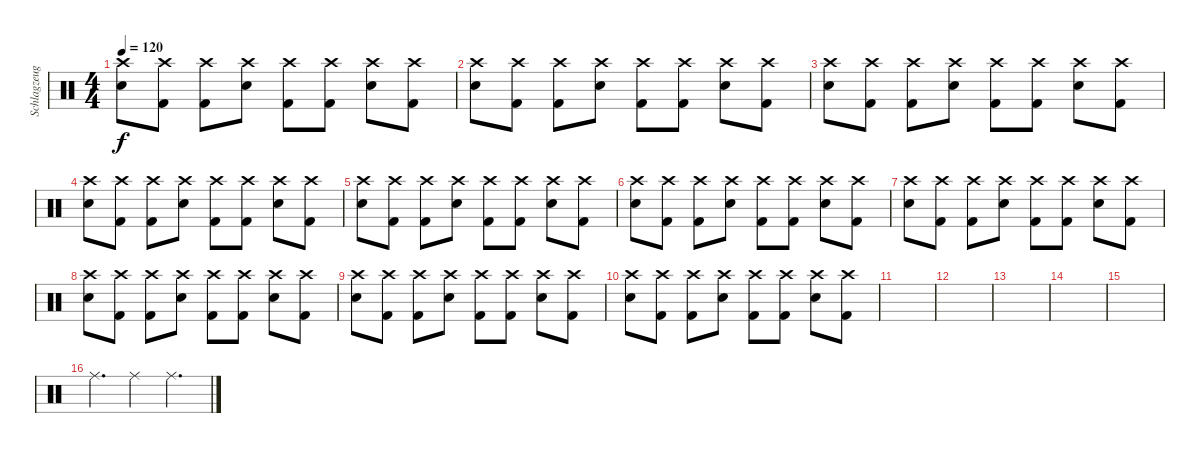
\track ("Schlagzeug" "Schlagzeug") {instrument percussion}
\staff {score}
\articulation defaults
\ts (4 4)
\tempo 120
\clef neutral
\ks c
("Snare (hit) 2" "Crash high (hit)").8{dy f} ("Kick (hit) 2" "Crash high (hit)").8 ("Crash high (hit)" "Kick (hit) 2").8 ("Snare (hit) 2" "Crash high (hit)").8 ("Kick (hit) 2" "Crash high (hit)").8 ("Kick (hit) 2" "Crash high (hit)").8 ("Snare (hit) 2" "Crash high (hit)").8 ("Crash high (hit)" "Kick (hit) 2").8 |
("Snare (hit) 2" "Crash high (hit)").8 ("Kick (hit) 2" "Crash high (hit)").8 ("Crash high (hit)" "Kick (hit) 2").8 ("Snare (hit) 2" "Crash high (hit)").8 ("Kick (hit) 2" "Crash high (hit)").8 ("Kick (hit) 2" "Crash high (hit)").8 ("Snare (hit) 2" "Crash high (hit)").8 ("Crash high (hit)" "Kick (hit) 2").8 |
("Snare (hit) 2" "Crash high (hit)").8 ("Kick (hit) 2" "Crash high (hit)").8 ("Crash high (hit)" "Kick (hit) 2").8 ("Snare (hit) 2" "Crash high (hit)").8 ("Kick (hit) 2" "Crash high (hit)").8 ("Kick (hit) 2" "Crash high (hit)").8 ("Snare (hit) 2" "Crash high (hit)").8 ("Crash high (hit)" "Kick (hit) 2").8 |
("Snare (hit) 2" "Crash high (hit)").8 ("Kick (hit) 2" "Crash high (hit)").8 ("Crash high (hit)" "Kick (hit) 2").8 ("Snare (hit) 2" "Crash high (hit)").8 ("Kick (hit) 2" "Crash high (hit)").8 ("Kick (hit) 2" "Crash high (hit)").8 ("Snare (hit) 2" "Crash high (hit)").8 ("Crash high (hit)" "Kick (hit) 2").8 |
("Snare (hit) 2" "Crash high (hit)").8 ("Kick (hit) 2" "Crash high (hit)").8 ("Crash high (hit)" "Kick (hit) 2").8 ("Snare (hit) 2" "Crash high (hit)").8 ("Kick (hit) 2" "Crash high (hit)").8 ("Kick (hit) 2" "Crash high (hit)").8 ("Snare (hit) 2" "Crash high (hit)").8 ("Crash high (hit)" "Kick (hit) 2").8 |
("Snare (hit) 2" "Crash high (hit)").8 ("Kick (hit) 2" "Crash high (hit)").8 ("Crash high (hit)" "Kick (hit) 2").8 ("Snare (hit) 2" "Crash high (hit)").8 ("Kick (hit) 2" "Crash high (hit)").8 ("Kick (hit) 2" "Crash high (hit)").8 ("Snare (hit) 2" "Crash high (hit)").8 ("Crash high (hit)" "Kick (hit) 2").8 |
("Snare (hit) 2" "Crash high (hit)").8 ("Kick (hit) 2" "Crash high (hit)").8 ("Crash high (hit)" "Kick (hit) 2").8 ("Snare (hit) 2" "Crash high (hit)").8 ("Kick (hit) 2" "Crash high (hit)").8 ("Kick (hit) 2" "Crash high (hit)").8 ("Snare (hit) 2" "Crash high (hit)").8 ("Crash high (hit)" "Kick (hit) 2").8 |
("Snare (hit) 2" "Crash high (hit)").8 ("Kick (hit) 2" "Crash high (hit)").8 ("Crash high (hit)" "Kick (hit) 2").8 ("Snare (hit) 2" "Crash high (hit)").8 ("Kick (hit) 2" "Crash high (hit)").8 ("Kick (hit) 2" "Crash high (hit)").8 ("Snare (hit) 2" "Crash high (hit)").8 ("Crash high (hit)" "Kick (hit) 2").8 |
("Snare (hit) 2" "Crash high (hit)").8 ("Kick (hit) 2" "Crash high (hit)").8 ("Crash high (hit)" "Kick (hit) 2").8 ("Snare (hit) 2" "Crash high (hit)").8 ("Kick (hit) 2" "Crash high (hit)").8 ("Kick (hit) 2" "Crash high (hit)").8 ("Snare (hit) 2" "Crash high (hit)").8 ("Crash high (hit)" "Kick (hit) 2").8 |
("Snare (hit) 2" "Crash high (hit)").8 ("Kick (hit) 2" "Crash high (hit)").8 ("Crash high (hit)" "Kick (hit) 2").8 ("Snare (hit) 2" "Crash high (hit)").8 ("Kick (hit) 2" "Crash high (hit)").8 ("Kick (hit) 2" "Crash high (hit)").8 ("Snare (hit) 2" "Crash high (hit)").8 ("Crash high (hit)" "Kick (hit) 2").8 |
|
|
|
|
|
"Ride (middle)".4{d volume 16} "Ride (middle)".4 "Ride (middle)".4{d}
